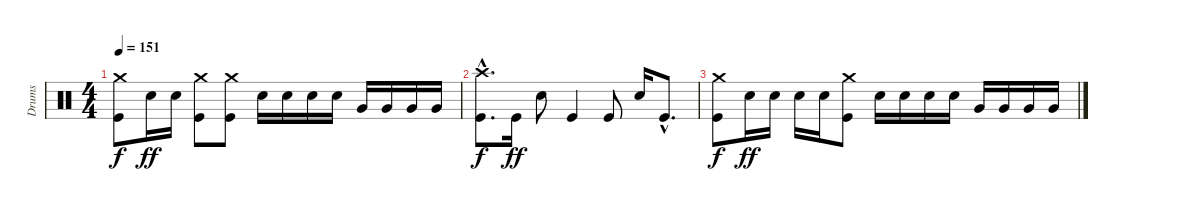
\track ("Drums" "Drums") {instrument percussion}
\staff {score}
\articulation defaults
\ts (4 4)
\tempo 151
\clef neutral
\ks c
("Crash medium (hit)" "Kick (hit)").8{dy f} "Snare (hit) 2".16{dy ff} "Snare (hit) 2".16 ("Crash medium (hit)" "Kick (hit)").8 ("Crash medium (hit)" "Kick (hit)").8 "Snare (hit) 2".16 "Snare (hit) 2".16 "Snare (hit) 2".16 "Snare (hit) 2".16 "Very Low Tom (hit)".16 "Very Low Tom (hit)".16 "Very Low Tom (hit)".16 "Very Low Tom (hit)".16 |
("Kick (hit)"{hac} "Crash high (hit)"{hac}).8{d dy f} "Kick (hit)".16{dy ff} "Snare (hit) 2".8 "Kick (hit)".4 "Kick (hit)".8 "Snare (hit) 2".16 "Kick (hit)"{hac}.8{d} |
("Crash medium (hit)" "Kick (hit)").8{dy f} "Snare (hit) 2".16{dy ff} "Snare (hit) 2".16 "Snare (hit) 2".16 "Snare (hit) 2".16 ("Crash medium (hit)" "Kick (hit)").8 "Snare (hit) 2".16 "Snare (hit) 2".16 "Snare (hit) 2".16 "Snare (hit) 2".16 "Very Low Tom (hit)".16 "Very Low Tom (hit)".16 "Very Low Tom (hit)".16 "Very Low Tom (hit)".16
